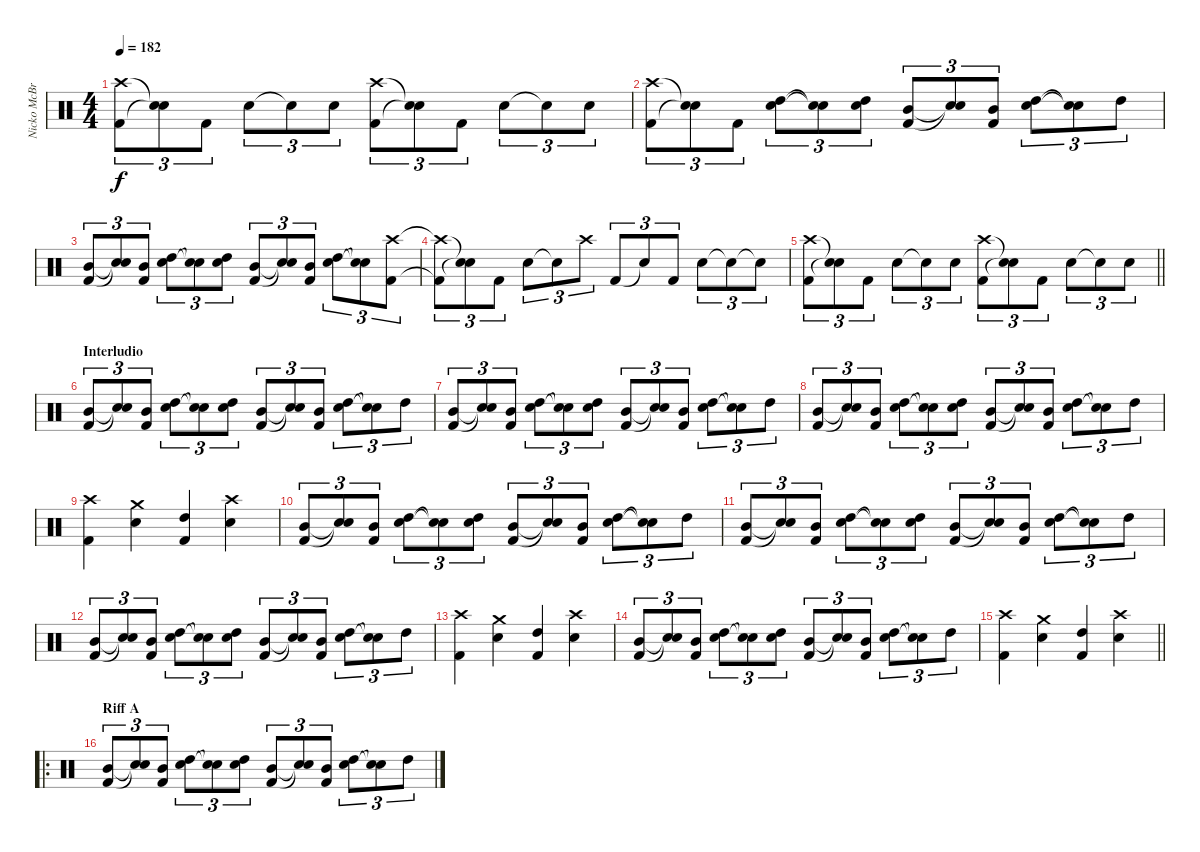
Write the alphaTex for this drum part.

\track ("Nicko McBrain" "Nicko McBr") {instrument percussion}
\staff {score}
\articulation defaults
\ts (4 4)
\tempo 182
\clef neutral
\ks c
("Kick (hit) 2" "Crash high (hit)").8{tu (3 2) dy f} ("Snare (hit)"{t} "Snare (hit)"{t}).8{tu (3 2)} "Kick (hit) 2".8{tu (3 2)} "Snare (hit) 2".8{tu (3 2)} "Snare (hit)"{t}.8{tu (3 2)} "Snare (hit) 2".8{tu (3 2)} ("Kick (hit) 2" "Crash high (hit)").8{tu (3 2)} ("Snare (hit)"{t} "Snare (hit)"{t}).8{tu (3 2)} "Kick (hit) 2".8{tu (3 2)} "Snare (hit) 2".8{tu (3 2)} "Snare (hit)"{t}.8{tu (3 2)} "Snare (hit) 2".8{tu (3 2)} |
("Kick (hit) 2" "Crash high (hit)").8{tu (3 2)} ("Snare (hit)"{t} "Snare (hit)"{t}).8{tu (3 2)} "Kick (hit) 2".8{tu (3 2)} ("High Tom (hit)" "Snare (hit) 2").8{tu (3 2)} ("Snare (hit)"{t} "Snare (hit)"{t}).8{tu (3 2)} ("High Tom (hit)" "Snare (hit) 2").8{tu (3 2)} ("Mid Tom (hit)" "Kick (hit) 2").8{tu (3 2)} ("Snare (hit)"{t} "Snare (hit)"{t}).8{tu (3 2)} ("Mid Tom (hit)" "Kick (hit) 2").8{tu (3 2)} ("High Tom (hit)" "Snare (hit) 2").8{tu (3 2)} ("Snare (hit)"{t} "Snare (hit)"{t}).8{tu (3 2)} "High Tom (hit)".8{tu (3 2)} |
("Mid Tom (hit)" "Kick (hit) 2").8{tu (3 2)} ("Snare (hit)"{t} "Snare (hit)"{t}).8{tu (3 2)} ("Mid Tom (hit)" "Kick (hit) 2").8{tu (3 2)} ("High Tom (hit)" "Snare (hit) 2").8{tu (3 2)} ("Snare (hit)"{t} "Snare (hit)"{t}).8{tu (3 2)} ("High Tom (hit)" "Snare (hit) 2").8{tu (3 2)} ("Mid Tom (hit)" "Kick (hit) 2").8{tu (3 2)} ("Snare (hit)"{t} "Snare (hit)"{t}).8{tu (3 2)} ("Mid Tom (hit)" "Kick (hit) 2").8{tu (3 2)} ("High Tom (hit)" "Snare (hit) 2").8{tu (3 2)} ("Snare (hit)"{t} "Snare (hit)"{t}).8{tu (3 2)} ("Kick (hit) 2" "Crash high (hit)").8{tu (3 2)} |
("Kick (hit) 2"{t} "Crash high (hit)"{t}).8{tu (3 2)} ("Snare (hit)"{t} "Snare (hit)"{t}).8{tu (3 2)} "Kick (hit) 2".8{tu (3 2)} "Snare (hit) 2".8{tu (3 2)} "Snare (hit)"{t}.8{tu (3 2)} "Crash high (hit)".8{tu (3 2)} "Kick (hit) 2".8{tu (3 2)} "Snare (hit)"{t}.8{tu (3 2)} "Kick (hit) 2".8{tu (3 2)} "Snare (hit) 2".8{tu (3 2)} "Snare (hit)"{t}.8{tu (3 2)} "Snare (hit)"{t}.8{tu (3 2)} |
\barLineRight lightlight
("Kick (hit) 2" "Crash high (hit)").8{tu (3 2)} ("Snare (hit)"{t} "Snare (hit)"{t}).8{tu (3 2)} "Kick (hit) 2".8{tu (3 2)} "Snare (hit) 2".8{tu (3 2)} "Snare (hit)"{t}.8{tu (3 2)} "Snare (hit) 2".8{tu (3 2)} ("Kick (hit) 2" "Crash high (hit)").8{tu (3 2)} ("Snare (hit)"{t} "Snare (hit)"{t}).8{tu (3 2)} "Kick (hit) 2".8{tu (3 2)} "Snare (hit) 2".8{tu (3 2)} "Snare (hit)"{t}.8{tu (3 2)} "Snare (hit) 2".8{tu (3 2)} |
\section ("" "Interludio")
("Mid Tom (hit)" "Kick (hit) 2").8{tu (3 2)} ("Snare (hit)"{t} "Snare (hit)"{t}).8{tu (3 2)} ("Mid Tom (hit)" "Kick (hit) 2").8{tu (3 2)} ("High Tom (hit)" "Snare (hit) 2").8{tu (3 2)} ("Snare (hit)"{t} "Snare (hit)"{t}).8{tu (3 2)} ("High Tom (hit)" "Snare (hit) 2").8{tu (3 2)} ("Mid Tom (hit)" "Kick (hit) 2").8{tu (3 2)} ("Snare (hit)"{t} "Snare (hit)"{t}).8{tu (3 2)} ("Mid Tom (hit)" "Kick (hit) 2").8{tu (3 2)} ("High Tom (hit)" "Snare (hit) 2").8{tu (3 2)} ("Snare (hit)"{t} "Snare (hit)"{t}).8{tu (3 2)} "High Tom (hit)".8{tu (3 2)} |
("Mid Tom (hit)" "Kick (hit) 2").8{tu (3 2)} ("Snare (hit)"{t} "Snare (hit)"{t}).8{tu (3 2)} ("Mid Tom (hit)" "Kick (hit) 2").8{tu (3 2)} ("High Tom (hit)" "Snare (hit) 2").8{tu (3 2)} ("Snare (hit)"{t} "Snare (hit)"{t}).8{tu (3 2)} ("High Tom (hit)" "Snare (hit) 2").8{tu (3 2)} ("Mid Tom (hit)" "Kick (hit) 2").8{tu (3 2)} ("Snare (hit)"{t} "Snare (hit)"{t}).8{tu (3 2)} ("Mid Tom (hit)" "Kick (hit) 2").8{tu (3 2)} ("High Tom (hit)" "Snare (hit) 2").8{tu (3 2)} ("Snare (hit)"{t} "Snare (hit)"{t}).8{tu (3 2)} "High Tom (hit)".8{tu (3 2)} |
("Mid Tom (hit)" "Kick (hit) 2").8{tu (3 2)} ("Snare (hit)"{t} "Snare (hit)"{t}).8{tu (3 2)} ("Mid Tom (hit)" "Kick (hit) 2").8{tu (3 2)} ("High Tom (hit)" "Snare (hit) 2").8{tu (3 2)} ("Snare (hit)"{t} "Snare (hit)"{t}).8{tu (3 2)} ("High Tom (hit)" "Snare (hit) 2").8{tu (3 2)} ("Mid Tom (hit)" "Kick (hit) 2").8{tu (3 2)} ("Snare (hit)"{t} "Snare (hit)"{t}).8{tu (3 2)} ("Mid Tom (hit)" "Kick (hit) 2").8{tu (3 2)} ("High Tom (hit)" "Snare (hit) 2").8{tu (3 2)} ("Snare (hit)"{t} "Snare (hit)"{t}).8{tu (3 2)} "High Tom (hit)".8{tu (3 2)} |
("Kick (hit) 2" "Crash high (hit)").4 ("Snare (hit) 2" "Crash medium (hit)").4 ("High Tom (hit)" "Kick (hit) 2").4 ("Snare (hit) 2" "Crash high (hit)").4 |
("Mid Tom (hit)" "Kick (hit) 2").8{tu (3 2)} ("Snare (hit)"{t} "Snare (hit)"{t}).8{tu (3 2)} ("Mid Tom (hit)" "Kick (hit) 2").8{tu (3 2)} ("High Tom (hit)" "Snare (hit) 2").8{tu (3 2)} ("Snare (hit)"{t} "Snare (hit)"{t}).8{tu (3 2)} ("High Tom (hit)" "Snare (hit) 2").8{tu (3 2)} ("Mid Tom (hit)" "Kick (hit) 2").8{tu (3 2)} ("Snare (hit)"{t} "Snare (hit)"{t}).8{tu (3 2)} ("Mid Tom (hit)" "Kick (hit) 2").8{tu (3 2)} ("High Tom (hit)" "Snare (hit) 2").8{tu (3 2)} ("Snare (hit)"{t} "Snare (hit)"{t}).8{tu (3 2)} "High Tom (hit)".8{tu (3 2)} |
("Mid Tom (hit)" "Kick (hit) 2").8{tu (3 2)} ("Snare (hit)"{t} "Snare (hit)"{t}).8{tu (3 2)} ("Mid Tom (hit)" "Kick (hit) 2").8{tu (3 2)} ("High Tom (hit)" "Snare (hit) 2").8{tu (3 2)} ("Snare (hit)"{t} "Snare (hit)"{t}).8{tu (3 2)} ("High Tom (hit)" "Snare (hit) 2").8{tu (3 2)} ("Mid Tom (hit)" "Kick (hit) 2").8{tu (3 2)} ("Snare (hit)"{t} "Snare (hit)"{t}).8{tu (3 2)} ("Mid Tom (hit)" "Kick (hit) 2").8{tu (3 2)} ("High Tom (hit)" "Snare (hit) 2").8{tu (3 2)} ("Snare (hit)"{t} "Snare (hit)"{t}).8{tu (3 2)} "High Tom (hit)".8{tu (3 2)} |
("Mid Tom (hit)" "Kick (hit) 2").8{tu (3 2)} ("Snare (hit)"{t} "Snare (hit)"{t}).8{tu (3 2)} ("Mid Tom (hit)" "Kick (hit) 2").8{tu (3 2)} ("High Tom (hit)" "Snare (hit) 2").8{tu (3 2)} ("Snare (hit)"{t} "Snare (hit)"{t}).8{tu (3 2)} ("High Tom (hit)" "Snare (hit) 2").8{tu (3 2)} ("Mid Tom (hit)" "Kick (hit) 2").8{tu (3 2)} ("Snare (hit)"{t} "Snare (hit)"{t}).8{tu (3 2)} ("Mid Tom (hit)" "Kick (hit) 2").8{tu (3 2)} ("High Tom (hit)" "Snare (hit) 2").8{tu (3 2)} ("Snare (hit)"{t} "Snare (hit)"{t}).8{tu (3 2)} "High Tom (hit)".8{tu (3 2)} |
("Kick (hit) 2" "Crash high (hit)").4 ("Snare (hit) 2" "Crash medium (hit)").4 ("High Tom (hit)" "Kick (hit) 2").4 ("Snare (hit) 2" "Crash high (hit)").4 |
("Mid Tom (hit)" "Kick (hit) 2").8{tu (3 2)} ("Snare (hit)"{t} "Snare (hit)"{t}).8{tu (3 2)} ("Mid Tom (hit)" "Kick (hit) 2").8{tu (3 2)} ("High Tom (hit)" "Snare (hit) 2").8{tu (3 2)} ("Snare (hit)"{t} "Snare (hit)"{t}).8{tu (3 2)} ("High Tom (hit)" "Snare (hit) 2").8{tu (3 2)} ("Mid Tom (hit)" "Kick (hit) 2").8{tu (3 2)} ("Snare (hit)"{t} "Snare (hit)"{t}).8{tu (3 2)} ("Mid Tom (hit)" "Kick (hit) 2").8{tu (3 2)} ("High Tom (hit)" "Snare (hit) 2").8{tu (3 2)} ("Snare (hit)"{t} "Snare (hit)"{t}).8{tu (3 2)} "High Tom (hit)".8{tu (3 2)} |
\barLineRight lightlight
("Kick (hit) 2" "Crash high (hit)").4 ("Snare (hit) 2" "Crash medium (hit)").4 ("High Tom (hit)" "Kick (hit) 2").4 ("Snare (hit) 2" "Crash high (hit)").4 |
\ro
\section ("" "Riff A")
("Mid Tom (hit)" "Kick (hit) 2").8{tu (3 2)} ("Snare (hit)"{t} "Snare (hit)"{t}).8{tu (3 2)} ("Mid Tom (hit)" "Kick (hit) 2").8{tu (3 2)} ("High Tom (hit)" "Snare (hit) 2").8{tu (3 2)} ("Snare (hit)"{t} "Snare (hit)"{t}).8{tu (3 2)} ("High Tom (hit)" "Snare (hit) 2").8{tu (3 2)} ("Mid Tom (hit)" "Kick (hit) 2").8{tu (3 2)} ("Snare (hit)"{t} "Snare (hit)"{t}).8{tu (3 2)} ("Mid Tom (hit)" "Kick (hit) 2").8{tu (3 2)} ("High Tom (hit)" "Snare (hit) 2").8{tu (3 2)} ("Snare (hit)"{t} "Snare (hit)"{t}).8{tu (3 2)} "High Tom (hit)".8{tu (3 2)}
